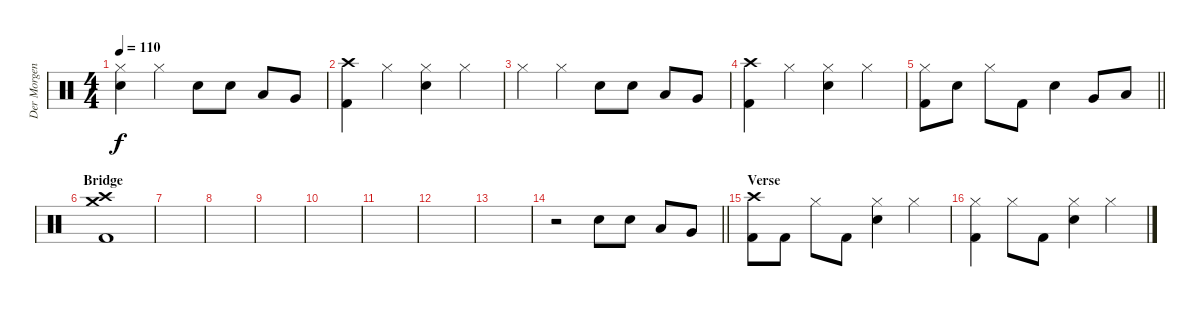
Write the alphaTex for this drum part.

\track ("Der Morgenstern" "Der Morgen") {instrument percussion}
\staff {score}
\articulation defaults
\ts (4 4)
\tempo 110
\clef neutral
\ks c
("Hi-Hat (closed)" "Electric Snare (hit)").4{dy f} "Hi-Hat (closed)".4 "Electric Snare (hit)".8 "Electric Snare (hit)".8 "Low Tom (hit)".8 "Very Low Tom (hit)".8 |
("Crash high (hit)" "Kick (hit) 2").4 "Hi-Hat (closed)".4 ("Hi-Hat (closed)" "Electric Snare (hit)").4 "Hi-Hat (closed)".4 |
"Hi-Hat (closed)".4 "Hi-Hat (closed)".4 "Electric Snare (hit)".8 "Electric Snare (hit)".8 "Low Tom (hit)".8 "Very Low Tom (hit)".8 |
("Crash high (hit)" "Kick (hit) 2").4 "Hi-Hat (closed)".4 ("Hi-Hat (closed)" "Electric Snare (hit)").4 "Hi-Hat (closed)".4 |
\barLineRight lightlight
("Hi-Hat (closed)" "Kick (hit) 2").8 "Electric Snare (hit)".8 "Hi-Hat (closed)".8 "Kick (hit) 2".8 "Electric Snare (hit)".4 "Very Low Tom (hit)".8 "Low Floor Tom (hit)".8 |
\section ("" "Bridge")
("Crash high (hit)" "Crash medium (hit)" "Kick (hit) 2").1 |
|
|
|
|
|
|
|
\barLineRight lightlight
r.2 "Electric Snare (hit)".8 "Electric Snare (hit)".8 "Low Tom (hit)".8 "Very Low Tom (hit)".8 |
\section ("" "Verse")
("Crash high (hit)" "Kick (hit) 2").8 "Kick (hit) 2".8 "Hi-Hat (closed)".8 "Kick (hit) 2".8 ("Hi-Hat (closed)" "Electric Snare (hit)").4 "Hi-Hat (closed)".4 |
("Hi-Hat (closed)" "Kick (hit) 2").4 "Hi-Hat (closed)".8 "Kick (hit) 2".8 ("Hi-Hat (closed)" "Electric Snare (hit)").4 "Hi-Hat (closed)".4
